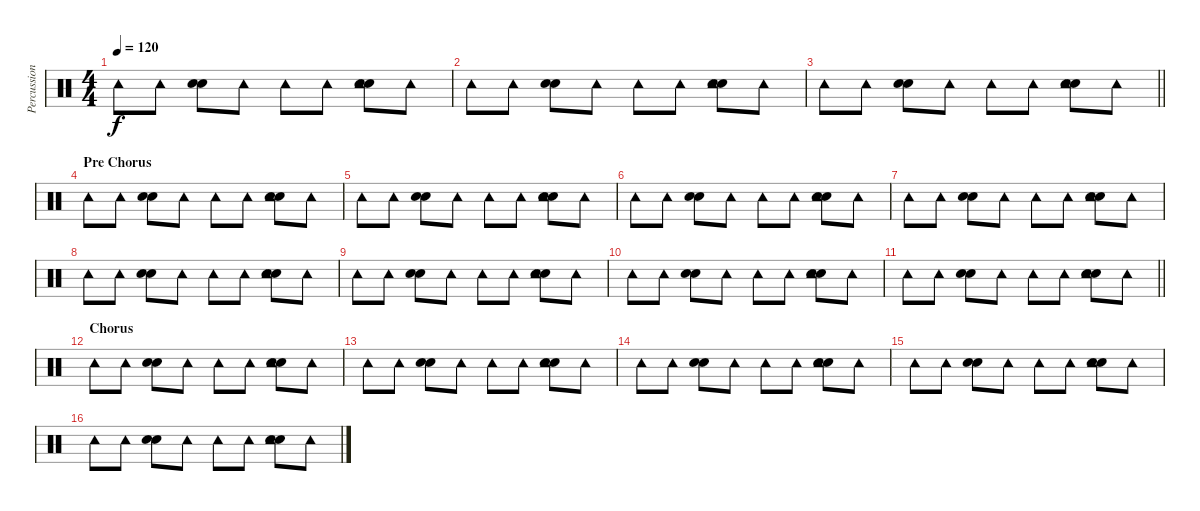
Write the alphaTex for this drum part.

\track ("Percussion" "Percussion") {instrument percussion}
\staff {score}
\articulation defaults
\ts (4 4)
\tempo 120
\clef neutral
\ks c "Tambourine (hit)".8{dy f} "Tambourine (hit)".8
("Snare (hit) 2" "Snare (hit) 2").8 "Tambourine (hit)".8 "Tambourine (hit)".8 "Tambourine (hit)".8 ("Snare (hit) 2" "Snare (hit) 2" "Tambourine (hit)").8 "Tambourine (hit)".8 |
"Tambourine (hit)".8 "Tambourine (hit)".8 ("Snare (hit) 2" "Snare (hit) 2").8 "Tambourine (hit)".8 "Tambourine (hit)".8 "Tambourine (hit)".8 ("Snare (hit) 2" "Snare (hit) 2" "Tambourine (hit)").8 "Tambourine (hit)".8 |
\barLineRight lightlight "Tambourine (hit)".8 "Tambourine (hit)".8
("Snare (hit) 2" "Snare (hit) 2").8 "Tambourine (hit)".8 "Tambourine (hit)".8 "Tambourine (hit)".8 ("Snare (hit) 2" "Snare (hit) 2" "Tambourine (hit)").8 "Tambourine (hit)".8 |
\section ("" "Pre Chorus")
"Tambourine (hit)".8 "Tambourine (hit)".8 ("Snare (hit) 2" "Snare (hit) 2").8 "Tambourine (hit)".8 "Tambourine (hit)".8 "Tambourine (hit)".8 ("Snare (hit) 2" "Snare (hit) 2" "Tambourine (hit)").8 "Tambourine (hit)".8 |
"Tambourine (hit)".8 "Tambourine (hit)".8 ("Snare (hit) 2" "Snare (hit) 2").8 "Tambourine (hit)".8 "Tambourine (hit)".8 "Tambourine (hit)".8 ("Snare (hit) 2" "Snare (hit) 2" "Tambourine (hit)").8 "Tambourine (hit)".8 |
"Tambourine (hit)".8 "Tambourine (hit)".8 ("Snare (hit) 2" "Snare (hit) 2").8 "Tambourine (hit)".8 "Tambourine (hit)".8 "Tambourine (hit)".8 ("Snare (hit) 2" "Snare (hit) 2" "Tambourine (hit)").8 "Tambourine (hit)".8 |
"Tambourine (hit)".8 "Tambourine (hit)".8 ("Snare (hit) 2" "Snare (hit) 2").8 "Tambourine (hit)".8 "Tambourine (hit)".8 "Tambourine (hit)".8 ("Snare (hit) 2" "Snare (hit) 2" "Tambourine (hit)").8 "Tambourine (hit)".8 |
"Tambourine (hit)".8 "Tambourine (hit)".8 ("Snare (hit) 2" "Snare (hit) 2").8 "Tambourine (hit)".8 "Tambourine (hit)".8 "Tambourine (hit)".8 ("Snare (hit) 2" "Snare (hit) 2" "Tambourine (hit)").8 "Tambourine (hit)".8 |
"Tambourine (hit)".8 "Tambourine (hit)".8 ("Snare (hit) 2" "Snare (hit) 2").8 "Tambourine (hit)".8 "Tambourine (hit)".8 "Tambourine (hit)".8 ("Snare (hit) 2" "Snare (hit) 2" "Tambourine (hit)").8 "Tambourine (hit)".8 |
"Tambourine (hit)".8 "Tambourine (hit)".8 ("Snare (hit) 2" "Snare (hit) 2").8 "Tambourine (hit)".8 "Tambourine (hit)".8 "Tambourine (hit)".8 ("Snare (hit) 2" "Snare (hit) 2" "Tambourine (hit)").8 "Tambourine (hit)".8 |
\barLineRight lightlight "Tambourine (hit)".8 "Tambourine (hit)".8
("Snare (hit) 2" "Snare (hit) 2").8 "Tambourine (hit)".8 "Tambourine (hit)".8 "Tambourine (hit)".8 ("Snare (hit) 2" "Snare (hit) 2" "Tambourine (hit)").8 "Tambourine (hit)".8 |
\section ("" "Chorus")
"Tambourine (hit)".8 "Tambourine (hit)".8 ("Snare (hit) 2" "Snare (hit) 2").8 "Tambourine (hit)".8 "Tambourine (hit)".8 "Tambourine (hit)".8 ("Snare (hit) 2" "Snare (hit) 2" "Tambourine (hit)").8 "Tambourine (hit)".8 |
"Tambourine (hit)".8 "Tambourine (hit)".8 ("Snare (hit) 2" "Snare (hit) 2").8 "Tambourine (hit)".8 "Tambourine (hit)".8 "Tambourine (hit)".8 ("Snare (hit) 2" "Snare (hit) 2" "Tambourine (hit)").8 "Tambourine (hit)".8 |
"Tambourine (hit)".8 "Tambourine (hit)".8 ("Snare (hit) 2" "Snare (hit) 2").8 "Tambourine (hit)".8 "Tambourine (hit)".8 "Tambourine (hit)".8 ("Snare (hit) 2" "Snare (hit) 2" "Tambourine (hit)").8 "Tambourine (hit)".8 |
"Tambourine (hit)".8 "Tambourine (hit)".8 ("Snare (hit) 2" "Snare (hit) 2").8 "Tambourine (hit)".8 "Tambourine (hit)".8 "Tambourine (hit)".8 ("Snare (hit) 2" "Snare (hit) 2" "Tambourine (hit)").8 "Tambourine (hit)".8 |
"Tambourine (hit)".8 "Tambourine (hit)".8 ("Snare (hit) 2" "Snare (hit) 2").8 "Tambourine (hit)".8 "Tambourine (hit)".8 "Tambourine (hit)".8 ("Snare (hit) 2" "Snare (hit) 2" "Tambourine (hit)").8 "Tambourine (hit)".8
